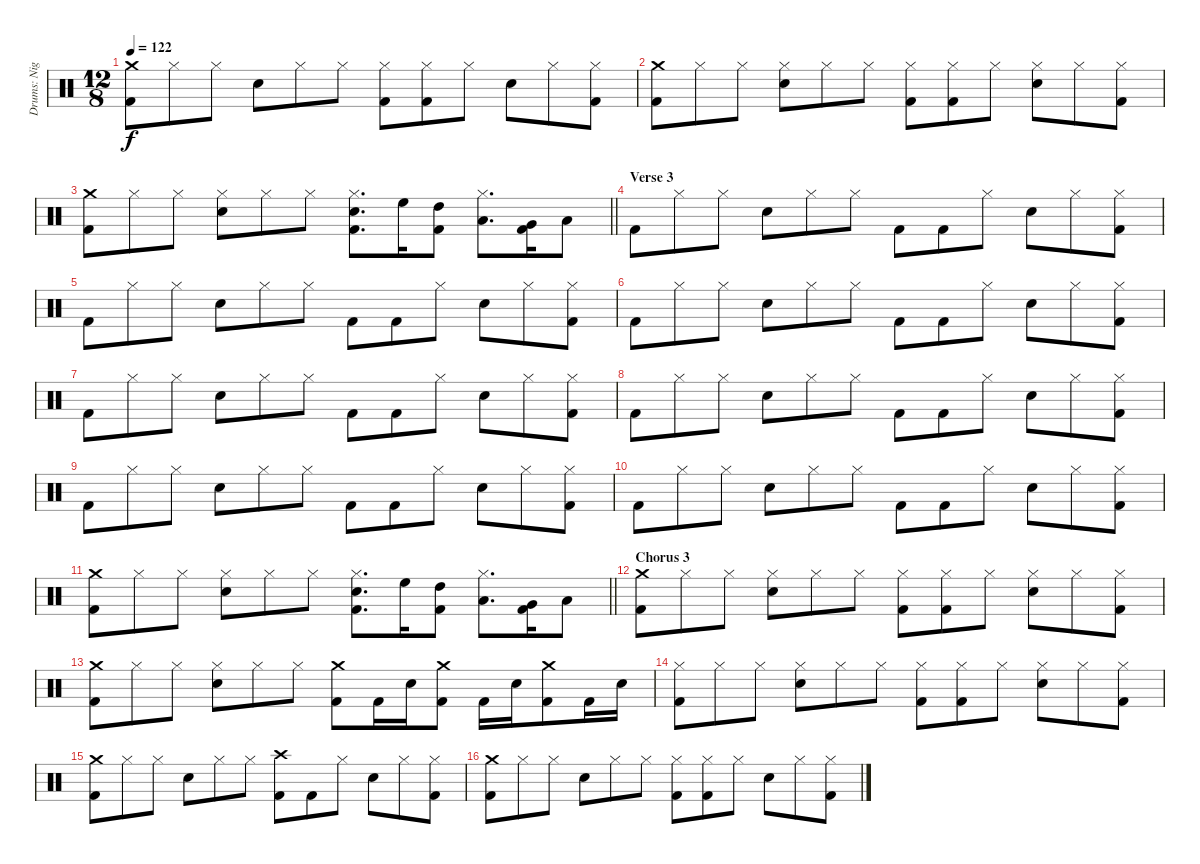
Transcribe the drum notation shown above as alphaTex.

\track ("Drums: Nigel Ollson" "Drums: Nig") {instrument percussion}
\staff {score}
\articulation defaults
\ts (12 8)
\tempo 122
\clef neutral
\ks c
("Crash medium (hit)" "Kick (hit) 2").8{dy f} "Hi-Hat (closed)".8 "Hi-Hat (closed)".8 "Snare (hit) 2".8 "Hi-Hat (closed)".8 "Hi-Hat (closed)".8 ("Hi-Hat (closed)" "Kick (hit) 2").8 ("Hi-Hat (closed)" "Kick (hit) 2").8 "Hi-Hat (closed)".8 "Snare (hit) 2".8 "Hi-Hat (closed)".8 ("Hi-Hat (closed)" "Kick (hit) 2").8 |
("Crash medium (hit)" "Kick (hit) 2").8 "Hi-Hat (closed)".8 "Hi-Hat (closed)".8 ("Hi-Hat (closed)" "Snare (hit) 2").8 "Hi-Hat (closed)".8 "Hi-Hat (closed)".8 ("Hi-Hat (closed)" "Kick (hit) 2").8 ("Hi-Hat (closed)" "Kick (hit) 2").8 "Hi-Hat (closed)".8 ("Hi-Hat (closed)" "Snare (hit) 2").8 "Hi-Hat (closed)".8 ("Hi-Hat (closed)" "Kick (hit) 2").8 |
\barLineRight lightlight
("Crash medium (hit)" "Kick (hit) 2").8 "Hi-Hat (closed)".8 "Hi-Hat (closed)".8 ("Hi-Hat (closed)" "Snare (hit) 2").8 "Hi-Hat (closed)".8 "Hi-Hat (closed)".8 ("Hi-Hat (closed)" "Snare (hit) 2" "Kick (hit) 2").8{d} "High Floor Tom (hit)".16 ("High Tom (hit)" "Kick (hit) 2").8 ("Hi-Hat (closed)" "Low Tom (hit)").8{d} ("Very Low Tom (hit)" "Kick (hit) 2").16 "Low Floor Tom (hit)".8 |
\section ("" "Verse 3")
"Kick (hit) 2".8 "Hi-Hat (closed)".8 "Hi-Hat (closed)".8 "Snare (hit) 2".8 "Hi-Hat (closed)".8 "Hi-Hat (closed)".8 "Kick (hit) 2".8 "Kick (hit) 2".8 "Hi-Hat (closed)".8 "Snare (hit) 2".8 "Hi-Hat (closed)".8 ("Hi-Hat (closed)" "Kick (hit) 2").8 |
"Kick (hit) 2".8 "Hi-Hat (closed)".8 "Hi-Hat (closed)".8 "Snare (hit) 2".8 "Hi-Hat (closed)".8 "Hi-Hat (closed)".8 "Kick (hit) 2".8 "Kick (hit) 2".8 "Hi-Hat (closed)".8 "Snare (hit) 2".8 "Hi-Hat (closed)".8 ("Hi-Hat (closed)" "Kick (hit) 2").8 |
"Kick (hit) 2".8 "Hi-Hat (closed)".8 "Hi-Hat (closed)".8 "Snare (hit) 2".8 "Hi-Hat (closed)".8 "Hi-Hat (closed)".8 "Kick (hit) 2".8 "Kick (hit) 2".8 "Hi-Hat (closed)".8 "Snare (hit) 2".8 "Hi-Hat (closed)".8 ("Hi-Hat (closed)" "Kick (hit) 2").8 |
"Kick (hit) 2".8 "Hi-Hat (closed)".8 "Hi-Hat (closed)".8 "Snare (hit) 2".8 "Hi-Hat (closed)".8 "Hi-Hat (closed)".8 "Kick (hit) 2".8 "Kick (hit) 2".8 "Hi-Hat (closed)".8 "Snare (hit) 2".8 "Hi-Hat (closed)".8 ("Hi-Hat (closed)" "Kick (hit) 2").8 |
"Kick (hit) 2".8 "Hi-Hat (closed)".8 "Hi-Hat (closed)".8 "Snare (hit) 2".8 "Hi-Hat (closed)".8 "Hi-Hat (closed)".8 "Kick (hit) 2".8 "Kick (hit) 2".8 "Hi-Hat (closed)".8 "Snare (hit) 2".8 "Hi-Hat (closed)".8 ("Hi-Hat (closed)" "Kick (hit) 2").8 |
"Kick (hit) 2".8 "Hi-Hat (closed)".8 "Hi-Hat (closed)".8 "Snare (hit) 2".8 "Hi-Hat (closed)".8 "Hi-Hat (closed)".8 "Kick (hit) 2".8 "Kick (hit) 2".8 "Hi-Hat (closed)".8 "Snare (hit) 2".8 "Hi-Hat (closed)".8 ("Hi-Hat (closed)" "Kick (hit) 2").8 |
"Kick (hit) 2".8 "Hi-Hat (closed)".8 "Hi-Hat (closed)".8 "Snare (hit) 2".8 "Hi-Hat (closed)".8 "Hi-Hat (closed)".8 "Kick (hit) 2".8 "Kick (hit) 2".8 "Hi-Hat (closed)".8 "Snare (hit) 2".8 "Hi-Hat (closed)".8 ("Hi-Hat (closed)" "Kick (hit) 2").8 |
\barLineRight lightlight
("Crash medium (hit)" "Kick (hit) 2").8 "Hi-Hat (closed)".8 "Hi-Hat (closed)".8 ("Hi-Hat (closed)" "Snare (hit) 2").8 "Hi-Hat (closed)".8 "Hi-Hat (closed)".8 ("Hi-Hat (closed)" "Snare (hit) 2" "Kick (hit) 2").8{d} "High Floor Tom (hit)".16 ("High Tom (hit)" "Kick (hit) 2").8 ("Hi-Hat (closed)" "Low Tom (hit)").8{d} ("Very Low Tom (hit)" "Kick (hit) 2").16 "Low Floor Tom (hit)".8 |
\section ("" "Chorus 3")
("Crash medium (hit)" "Kick (hit) 2").8 "Hi-Hat (closed)".8 "Hi-Hat (closed)".8 ("Hi-Hat (closed)" "Snare (hit) 2").8 "Hi-Hat (closed)".8 "Hi-Hat (closed)".8 ("Hi-Hat (closed)" "Kick (hit) 2").8 ("Hi-Hat (closed)" "Kick (hit) 2").8 "Hi-Hat (closed)".8 ("Hi-Hat (closed)" "Snare (hit) 2").8 "Hi-Hat (closed)".8 ("Hi-Hat (closed)" "Kick (hit) 2").8 |
("Crash medium (hit)" "Kick (hit) 2").8 "Hi-Hat (closed)".8 "Hi-Hat (closed)".8 ("Hi-Hat (closed)" "Snare (hit) 2").8 "Hi-Hat (closed)".8 "Hi-Hat (closed)".8 ("Crash medium (hit)" "Kick (hit) 2").8 "Kick (hit) 2".16 "Snare (hit) 2".16 ("Crash medium (hit)" "Kick (hit) 2").8 "Kick (hit) 2".16 "Snare (hit) 2".16 ("Crash medium (hit)" "Kick (hit) 2").8 "Kick (hit) 2".16 "Snare (hit) 2".16 |
("Hi-Hat (closed)" "Kick (hit) 2").8 "Hi-Hat (closed)".8 "Hi-Hat (closed)".8 ("Hi-Hat (closed)" "Snare (hit) 2").8 "Hi-Hat (closed)".8 "Hi-Hat (closed)".8 ("Hi-Hat (closed)" "Kick (hit) 2").8 ("Hi-Hat (closed)" "Kick (hit) 2").8 "Hi-Hat (closed)".8 ("Hi-Hat (closed)" "Snare (hit) 2").8 "Hi-Hat (closed)".8 ("Hi-Hat (closed)" "Kick (hit) 2").8 |
("Crash medium (hit)" "Kick (hit) 2").8 "Hi-Hat (closed)".8 "Hi-Hat (closed)".8 "Snare (hit) 2".8 "Hi-Hat (closed)".8 "Hi-Hat (closed)".8 ("Crash high (hit)" "Kick (hit) 2").8 "Kick (hit) 2".8 "Hi-Hat (closed)".8 "Snare (hit) 2".8 "Hi-Hat (closed)".8 ("Hi-Hat (closed)" "Kick (hit) 2").8 |
("Crash medium (hit)" "Kick (hit) 2").8 "Hi-Hat (closed)".8 "Hi-Hat (closed)".8 "Snare (hit) 2".8 "Hi-Hat (closed)".8 "Hi-Hat (closed)".8 ("Hi-Hat (closed)" "Kick (hit) 2").8 ("Hi-Hat (closed)" "Kick (hit) 2").8 "Hi-Hat (closed)".8 "Snare (hit) 2".8 "Hi-Hat (closed)".8 ("Hi-Hat (closed)" "Kick (hit) 2").8
